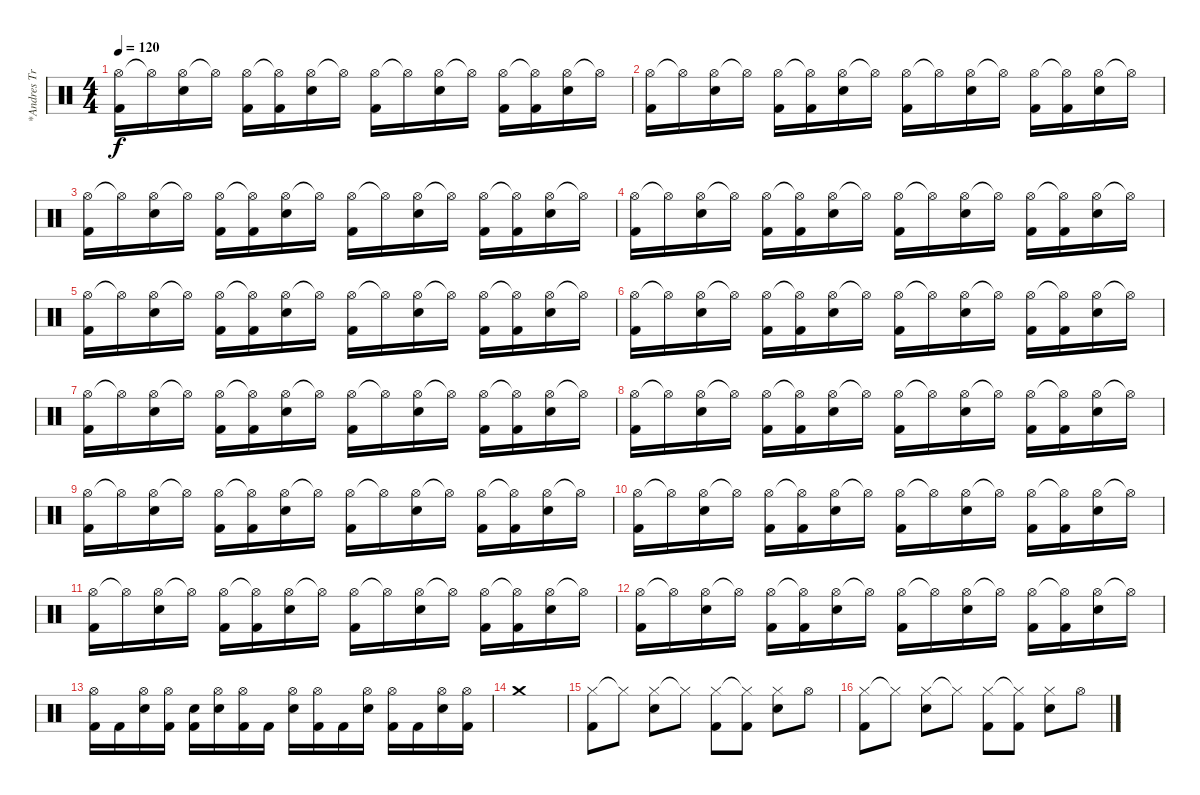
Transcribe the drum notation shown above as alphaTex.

\track ("*Andres Trujillo" "*Andres Tr") {instrument percussion}
\staff {score}
\articulation defaults
\ts (4 4)
\tempo 120
\clef neutral
\ks c
("Hi-Hat (open)" "Kick (hit) 2").16{dy f} "Hi-Hat (open)"{t}.16 ("Hi-Hat (open)" "Electric Snare (hit)").16 "Hi-Hat (open)"{t}.16 ("Hi-Hat (open)" "Kick (hit) 2").16 ("Hi-Hat (open)"{t} "Kick (hit) 2").16 ("Hi-Hat (open)" "Electric Snare (hit)").16 "Hi-Hat (open)"{t}.16 ("Hi-Hat (open)" "Kick (hit) 2").16 "Hi-Hat (open)"{t}.16 ("Hi-Hat (open)" "Electric Snare (hit)").16 "Hi-Hat (open)"{t}.16 ("Hi-Hat (open)" "Kick (hit) 2").16 ("Hi-Hat (open)"{t} "Kick (hit) 2").16 ("Hi-Hat (open)" "Electric Snare (hit)").16 "Hi-Hat (open)"{t}.16 |
("Hi-Hat (open)" "Kick (hit) 2").16 "Hi-Hat (open)"{t}.16 ("Hi-Hat (open)" "Electric Snare (hit)").16 "Hi-Hat (open)"{t}.16 ("Hi-Hat (open)" "Kick (hit) 2").16 ("Hi-Hat (open)"{t} "Kick (hit) 2").16 ("Hi-Hat (open)" "Electric Snare (hit)").16 "Hi-Hat (open)"{t}.16 ("Hi-Hat (open)" "Kick (hit) 2").16 "Hi-Hat (open)"{t}.16 ("Hi-Hat (open)" "Electric Snare (hit)").16 "Hi-Hat (open)"{t}.16 ("Hi-Hat (open)" "Kick (hit) 2").16 ("Hi-Hat (open)"{t} "Kick (hit) 2").16 ("Hi-Hat (open)" "Electric Snare (hit)").16 "Hi-Hat (open)"{t}.16 |
("Hi-Hat (open)" "Kick (hit) 2").16 "Hi-Hat (open)"{t}.16 ("Hi-Hat (open)" "Electric Snare (hit)").16 "Hi-Hat (open)"{t}.16 ("Hi-Hat (open)" "Kick (hit) 2").16 ("Hi-Hat (open)"{t} "Kick (hit) 2").16 ("Hi-Hat (open)" "Electric Snare (hit)").16 "Hi-Hat (open)"{t}.16 ("Hi-Hat (open)" "Kick (hit) 2").16 "Hi-Hat (open)"{t}.16 ("Hi-Hat (open)" "Electric Snare (hit)").16 "Hi-Hat (open)"{t}.16 ("Hi-Hat (open)" "Kick (hit) 2").16 ("Hi-Hat (open)"{t} "Kick (hit) 2").16 ("Hi-Hat (open)" "Electric Snare (hit)").16 "Hi-Hat (open)"{t}.16 |
("Hi-Hat (open)" "Kick (hit) 2").16 "Hi-Hat (open)"{t}.16 ("Hi-Hat (open)" "Electric Snare (hit)").16 "Hi-Hat (open)"{t}.16 ("Hi-Hat (open)" "Kick (hit) 2").16 ("Hi-Hat (open)"{t} "Kick (hit) 2").16 ("Hi-Hat (open)" "Electric Snare (hit)").16 "Hi-Hat (open)"{t}.16 ("Hi-Hat (open)" "Kick (hit) 2").16 "Hi-Hat (open)"{t}.16 ("Hi-Hat (open)" "Electric Snare (hit)").16 "Hi-Hat (open)"{t}.16 ("Hi-Hat (open)" "Kick (hit) 2").16 ("Hi-Hat (open)"{t} "Kick (hit) 2").16 ("Hi-Hat (open)" "Electric Snare (hit)").16 "Hi-Hat (open)"{t}.16 |
("Hi-Hat (open)" "Kick (hit) 2").16 "Hi-Hat (open)"{t}.16 ("Hi-Hat (open)" "Electric Snare (hit)").16 "Hi-Hat (open)"{t}.16 ("Hi-Hat (open)" "Kick (hit) 2").16 ("Hi-Hat (open)"{t} "Kick (hit) 2").16 ("Hi-Hat (open)" "Electric Snare (hit)").16 "Hi-Hat (open)"{t}.16 ("Hi-Hat (open)" "Kick (hit) 2").16 "Hi-Hat (open)"{t}.16 ("Hi-Hat (open)" "Electric Snare (hit)").16 "Hi-Hat (open)"{t}.16 ("Hi-Hat (open)" "Kick (hit) 2").16 ("Hi-Hat (open)"{t} "Kick (hit) 2").16 ("Hi-Hat (open)" "Electric Snare (hit)").16 "Hi-Hat (open)"{t}.16 |
("Hi-Hat (open)" "Kick (hit) 2").16 "Hi-Hat (open)"{t}.16 ("Hi-Hat (open)" "Electric Snare (hit)").16 "Hi-Hat (open)"{t}.16 ("Hi-Hat (open)" "Kick (hit) 2").16 ("Hi-Hat (open)"{t} "Kick (hit) 2").16 ("Hi-Hat (open)" "Electric Snare (hit)").16 "Hi-Hat (open)"{t}.16 ("Hi-Hat (open)" "Kick (hit) 2").16 "Hi-Hat (open)"{t}.16 ("Hi-Hat (open)" "Electric Snare (hit)").16 "Hi-Hat (open)"{t}.16 ("Hi-Hat (open)" "Kick (hit) 2").16 ("Hi-Hat (open)"{t} "Kick (hit) 2").16 ("Hi-Hat (open)" "Electric Snare (hit)").16 "Hi-Hat (open)"{t}.16 |
("Hi-Hat (open)" "Kick (hit) 2").16 "Hi-Hat (open)"{t}.16 ("Hi-Hat (open)" "Electric Snare (hit)").16 "Hi-Hat (open)"{t}.16 ("Hi-Hat (open)" "Kick (hit) 2").16 ("Hi-Hat (open)"{t} "Kick (hit) 2").16 ("Hi-Hat (open)" "Electric Snare (hit)").16 "Hi-Hat (open)"{t}.16 ("Hi-Hat (open)" "Kick (hit) 2").16 "Hi-Hat (open)"{t}.16 ("Hi-Hat (open)" "Electric Snare (hit)").16 "Hi-Hat (open)"{t}.16 ("Hi-Hat (open)" "Kick (hit) 2").16 ("Hi-Hat (open)"{t} "Kick (hit) 2").16 ("Hi-Hat (open)" "Electric Snare (hit)").16 "Hi-Hat (open)"{t}.16 |
("Hi-Hat (open)" "Kick (hit) 2").16 "Hi-Hat (open)"{t}.16 ("Hi-Hat (open)" "Electric Snare (hit)").16 "Hi-Hat (open)"{t}.16 ("Hi-Hat (open)" "Kick (hit) 2").16 ("Hi-Hat (open)"{t} "Kick (hit) 2").16 ("Hi-Hat (open)" "Electric Snare (hit)").16 "Hi-Hat (open)"{t}.16 ("Hi-Hat (open)" "Kick (hit) 2").16 "Hi-Hat (open)"{t}.16 ("Hi-Hat (open)" "Electric Snare (hit)").16 "Hi-Hat (open)"{t}.16 ("Hi-Hat (open)" "Kick (hit) 2").16 ("Hi-Hat (open)"{t} "Kick (hit) 2").16 ("Hi-Hat (open)" "Electric Snare (hit)").16 "Hi-Hat (open)"{t}.16 |
("Hi-Hat (open)" "Kick (hit) 2").16 "Hi-Hat (open)"{t}.16 ("Hi-Hat (open)" "Electric Snare (hit)").16 "Hi-Hat (open)"{t}.16 ("Hi-Hat (open)" "Kick (hit) 2").16 ("Hi-Hat (open)"{t} "Kick (hit) 2").16 ("Hi-Hat (open)" "Electric Snare (hit)").16 "Hi-Hat (open)"{t}.16 ("Hi-Hat (open)" "Kick (hit) 2").16 "Hi-Hat (open)"{t}.16 ("Hi-Hat (open)" "Electric Snare (hit)").16 "Hi-Hat (open)"{t}.16 ("Hi-Hat (open)" "Kick (hit) 2").16 ("Hi-Hat (open)"{t} "Kick (hit) 2").16 ("Hi-Hat (open)" "Electric Snare (hit)").16 "Hi-Hat (open)"{t}.16 |
("Hi-Hat (open)" "Kick (hit) 2").16 "Hi-Hat (open)"{t}.16 ("Hi-Hat (open)" "Electric Snare (hit)").16 "Hi-Hat (open)"{t}.16 ("Hi-Hat (open)" "Kick (hit) 2").16 ("Hi-Hat (open)"{t} "Kick (hit) 2").16 ("Hi-Hat (open)" "Electric Snare (hit)").16 "Hi-Hat (open)"{t}.16 ("Hi-Hat (open)" "Kick (hit) 2").16 "Hi-Hat (open)"{t}.16 ("Hi-Hat (open)" "Electric Snare (hit)").16 "Hi-Hat (open)"{t}.16 ("Hi-Hat (open)" "Kick (hit) 2").16 ("Hi-Hat (open)"{t} "Kick (hit) 2").16 ("Hi-Hat (open)" "Electric Snare (hit)").16 "Hi-Hat (open)"{t}.16 |
("Hi-Hat (open)" "Kick (hit) 2").16 "Hi-Hat (open)"{t}.16 ("Hi-Hat (open)" "Electric Snare (hit)").16 "Hi-Hat (open)"{t}.16 ("Hi-Hat (open)" "Kick (hit) 2").16 ("Hi-Hat (open)"{t} "Kick (hit) 2").16 ("Hi-Hat (open)" "Electric Snare (hit)").16 "Hi-Hat (open)"{t}.16 ("Hi-Hat (open)" "Kick (hit) 2").16 "Hi-Hat (open)"{t}.16 ("Hi-Hat (open)" "Electric Snare (hit)").16 "Hi-Hat (open)"{t}.16 ("Hi-Hat (open)" "Kick (hit) 2").16 ("Hi-Hat (open)"{t} "Kick (hit) 2").16 ("Hi-Hat (open)" "Electric Snare (hit)").16 "Hi-Hat (open)"{t}.16 |
("Hi-Hat (open)" "Kick (hit) 2").16 "Hi-Hat (open)"{t}.16 ("Hi-Hat (open)" "Electric Snare (hit)").16 "Hi-Hat (open)"{t}.16 ("Hi-Hat (open)" "Kick (hit) 2").16 ("Hi-Hat (open)"{t} "Kick (hit) 2").16 ("Hi-Hat (open)" "Electric Snare (hit)").16 "Hi-Hat (open)"{t}.16 ("Hi-Hat (open)" "Kick (hit) 2").16 "Hi-Hat (open)"{t}.16 ("Hi-Hat (open)" "Electric Snare (hit)").16 "Hi-Hat (open)"{t}.16 ("Hi-Hat (open)" "Kick (hit) 2").16 ("Hi-Hat (open)"{t} "Kick (hit) 2").16 ("Hi-Hat (open)" "Electric Snare (hit)").16 "Hi-Hat (open)"{t}.16 |
("Hi-Hat (open)" "Kick (hit) 2").16 "Kick (hit) 2".16 ("Hi-Hat (open)" "Electric Snare (hit)").16 ("Hi-Hat (open)" "Kick (hit) 2").16 ("Snare (hit)"{x} "Kick (hit) 2").16 ("Hi-Hat (open)" "Electric Snare (hit)").16 ("Hi-Hat (open)" "Kick (hit) 2").16 "Kick (hit) 2".16 ("Hi-Hat (open)" "Electric Snare (hit)").16 ("Hi-Hat (open)" "Kick (hit) 2").16 "Kick (hit) 2".16 ("Hi-Hat (open)" "Electric Snare (hit)").16 ("Hi-Hat (open)" "Kick (hit) 2").16 "Kick (hit) 2".16 ("Hi-Hat (open)" "Electric Snare (hit)").16 ("Hi-Hat (open)" "Kick (hit) 2").16 |
"Crash medium (hit)".1 |
("Hi-Hat (closed)" "Kick (hit) 2").8 "Hi-Hat (closed)"{t}.8 ("Hi-Hat (closed)" "Electric Snare (hit)").8 "Hi-Hat (closed)"{t}.8 ("Hi-Hat (closed)" "Kick (hit) 2").8 ("Hi-Hat (closed)"{t} "Kick (hit) 2").8 ("Hi-Hat (closed)" "Electric Snare (hit)").8 "Hi-Hat (open)".8 |
("Hi-Hat (closed)" "Kick (hit) 2").8 "Hi-Hat (closed)"{t}.8 ("Hi-Hat (closed)" "Electric Snare (hit)").8 "Hi-Hat (closed)"{t}.8 ("Hi-Hat (closed)" "Kick (hit) 2").8 ("Hi-Hat (closed)"{t} "Kick (hit) 2").8 ("Hi-Hat (closed)" "Electric Snare (hit)").8 "Hi-Hat (open)".8
